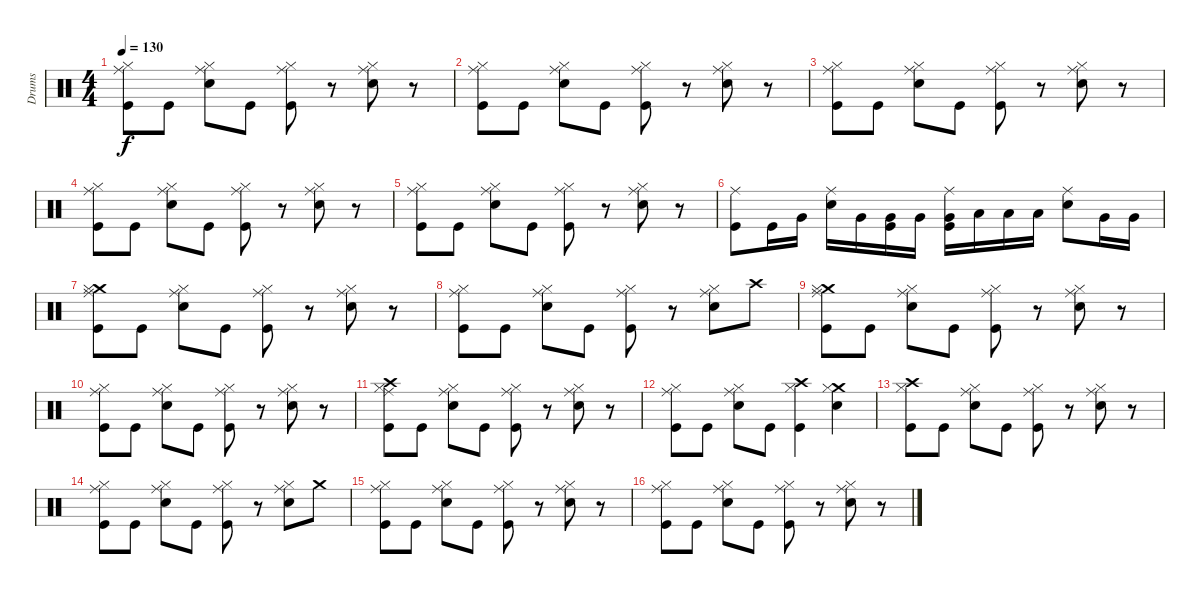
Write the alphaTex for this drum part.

\track ("Drums" "Drums") {instrument percussion}
\staff {score}
\articulation defaults
\ts (4 4)
\tempo 130
\clef neutral
\ks c
("Hi-Hat (closed)" "Ride (middle)" "Kick (hit)").8{dy f} "Kick (hit)".8 ("Hi-Hat (closed)" "Ride (middle)" "Snare (hit) 2").8 "Kick (hit)".8 ("Hi-Hat (closed)" "Ride (middle)" "Kick (hit)").8 r.8 ("Hi-Hat (closed)" "Ride (middle)" "Snare (hit) 2").8 r.8 |
("Hi-Hat (closed)" "Ride (middle)" "Kick (hit)").8 "Kick (hit)".8 ("Hi-Hat (closed)" "Ride (middle)" "Snare (hit) 2").8 "Kick (hit)".8 ("Hi-Hat (closed)" "Ride (middle)" "Kick (hit)").8 r.8 ("Ride (middle)" "Hi-Hat (closed)" "Snare (hit) 2").8 r.8 |
("Ride (middle)" "Hi-Hat (closed)" "Kick (hit)").8 "Kick (hit)".8 ("Hi-Hat (closed)" "Ride (middle)" "Snare (hit) 2").8 "Kick (hit)".8 ("Ride (middle)" "Hi-Hat (closed)" "Kick (hit)").8 r.8 ("Ride (middle)" "Hi-Hat (closed)" "Snare (hit) 2").8 r.8 |
("Ride (middle)" "Hi-Hat (closed)" "Kick (hit)").8 "Kick (hit)".8 ("Ride (middle)" "Hi-Hat (closed)" "Snare (hit) 2").8 "Kick (hit)".8 ("Ride (middle)" "Hi-Hat (closed)" "Kick (hit)").8 r.8 ("Ride (middle)" "Hi-Hat (closed)" "Snare (hit) 2").8 r.8 |
("Ride (middle)" "Hi-Hat (closed)" "Kick (hit)").8 "Kick (hit)".8 ("Ride (middle)" "Hi-Hat (closed)" "Snare (hit) 2").8 "Kick (hit)".8 ("Ride (middle)" "Hi-Hat (closed)" "Kick (hit)").8 r.8 ("Ride (middle)" "Hi-Hat (closed)" "Snare (hit) 2").8 r.8 |
("Ride (middle)" "Kick (hit)").8 "Kick (hit)".16 "Very Low Tom (hit)".16 ("Ride (middle)" "Snare (hit) 2").16 "Very Low Tom (hit)".16 ("Very Low Tom (hit)" "Kick (hit)").16 "Very Low Tom (hit)".16 ("Ride (middle)" "Very Low Tom (hit)" "Kick (hit)").16 "Low Floor Tom (hit)".16 "Low Floor Tom (hit)".16 "Low Floor Tom (hit)".16 ("Ride (middle)" "Snare (hit) 2").8 "Very Low Tom (hit)".16 "Very Low Tom (hit)".16 |
("Ride (middle)" "Crash medium (hit)" "Hi-Hat (closed)" "Kick (hit)").8 "Kick (hit)".8 ("Ride (middle)" "Hi-Hat (closed)" "Snare (hit) 2").8 "Kick (hit)".8 ("Ride (middle)" "Hi-Hat (closed)" "Kick (hit)").8 r.8 ("Ride (middle)" "Hi-Hat (closed)" "Snare (hit) 2").8 r.8 |
("Ride (middle)" "Hi-Hat (closed)" "Kick (hit)").8 "Kick (hit)".8 ("Ride (middle)" "Hi-Hat (closed)" "Snare (hit) 2").8 "Kick (hit)".8 ("Ride (middle)" "Hi-Hat (closed)" "Kick (hit)").8 r.8 ("Ride (middle)" "Hi-Hat (closed)" "Snare (hit) 2").8 "Crash high (hit)".8 |
("Ride (middle)" "Crash medium (hit)" "Hi-Hat (closed)" "Kick (hit)").8 "Kick (hit)".8 ("Ride (middle)" "Hi-Hat (closed)" "Snare (hit) 2").8 "Kick (hit)".8 ("Ride (middle)" "Hi-Hat (closed)" "Kick (hit)").8 r.8 ("Ride (middle)" "Hi-Hat (closed)" "Snare (hit) 2").8 r.8 |
("Ride (middle)" "Hi-Hat (closed)" "Kick (hit)").8 "Kick (hit)".8 ("Ride (middle)" "Hi-Hat (closed)" "Snare (hit) 2").8 "Kick (hit)".8 ("Ride (middle)" "Hi-Hat (closed)" "Kick (hit)").8 r.8 ("Ride (middle)" "Hi-Hat (closed)" "Snare (hit) 2").8 r.8 |
("Ride (middle)" "Crash high (hit)" "Hi-Hat (closed)" "Kick (hit)").8 "Kick (hit)".8 ("Ride (middle)" "Hi-Hat (closed)" "Snare (hit) 2").8 "Kick (hit)".8 ("Ride (middle)" "Hi-Hat (closed)" "Kick (hit)").8 r.8 ("Ride (middle)" "Hi-Hat (closed)" "Snare (hit) 2").8 r.8 |
("Ride (middle)" "Hi-Hat (closed)" "Kick (hit)").8 "Kick (hit)".8 ("Ride (middle)" "Hi-Hat (closed)" "Snare (hit) 2").8 "Kick (hit)".8 ("Crash high (hit)" "Hi-Hat (closed)" "Kick (hit)").4 ("Crash medium (hit)" "Hi-Hat (closed)" "Snare (hit) 2").4 |
("Crash high (hit)" "Hi-Hat (closed)" "Kick (hit)").8 "Kick (hit)".8 ("Ride (middle)" "Hi-Hat (closed)" "Snare (hit) 2").8 "Kick (hit)".8 ("Ride (middle)" "Hi-Hat (closed)" "Kick (hit)").8 r.8 ("Ride (middle)" "Hi-Hat (closed)" "Snare (hit) 2").8 r.8 |
("Ride (middle)" "Hi-Hat (closed)" "Kick (hit)").8 "Kick (hit)".8 ("Ride (middle)" "Hi-Hat (closed)" "Snare (hit) 2").8 "Kick (hit)".8 ("Ride (middle)" "Hi-Hat (closed)" "Kick (hit)").8 r.8 ("Ride (middle)" "Hi-Hat (closed)" "Snare (hit) 2").8 "Crash medium (hit)".8 |
("Ride (middle)" "Hi-Hat (closed)" "Kick (hit)").8 "Kick (hit)".8 ("Ride (middle)" "Hi-Hat (closed)" "Snare (hit) 2").8 "Kick (hit)".8 ("Ride (middle)" "Hi-Hat (closed)" "Kick (hit)").8 r.8 ("Ride (middle)" "Hi-Hat (closed)" "Snare (hit) 2").8 r.8 |
("Ride (middle)" "Hi-Hat (closed)" "Kick (hit)").8 "Kick (hit)".8 ("Ride (middle)" "Hi-Hat (closed)" "Snare (hit) 2").8 "Kick (hit)".8 ("Ride (middle)" "Hi-Hat (closed)" "Kick (hit)").8 r.8 ("Ride (middle)" "Hi-Hat (closed)" "Snare (hit) 2").8 r.8
